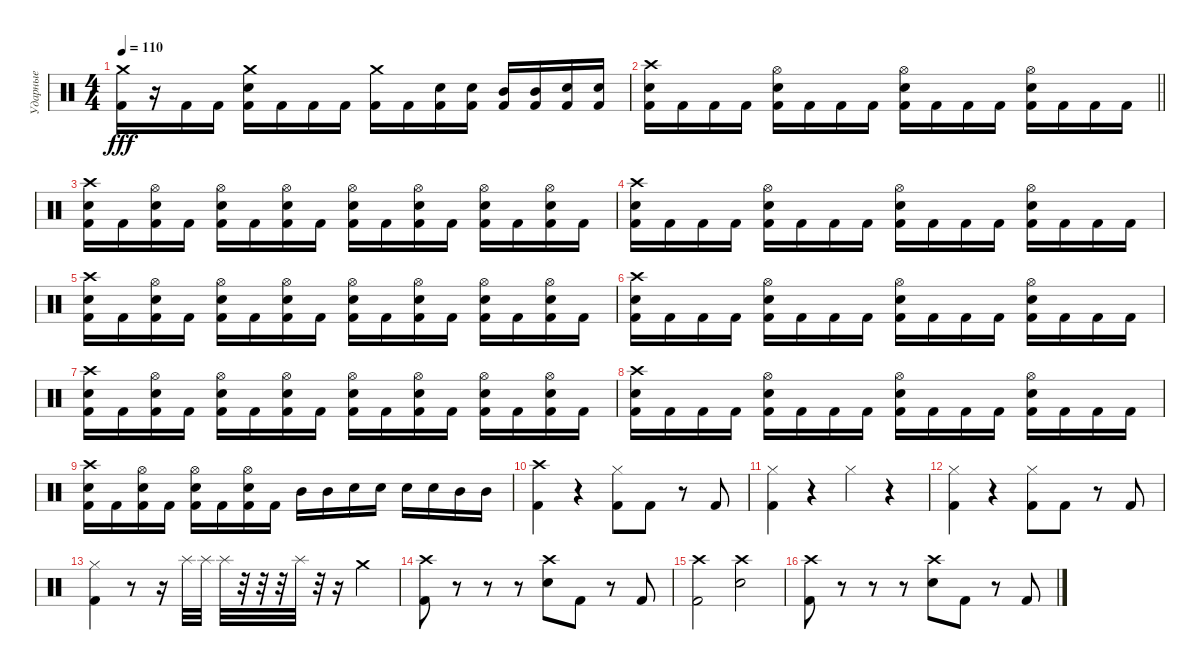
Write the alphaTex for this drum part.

\track ("Ударные" "Ударные") {mute instrument percussion}
\staff {score}
\articulation defaults
\ts (4 4)
\tempo 110
\clef neutral
\ks c
("Crash medium (hit)" "Kick (hit) 2").16{dy fff} r.16 "Kick (hit) 2".16 "Kick (hit) 2".16 ("Crash medium (hit)" "Snare (hit) 2" "Kick (hit) 2").16 "Kick (hit) 2".16 "Kick (hit) 2".16 "Kick (hit) 2".16 ("Crash medium (hit)" "Kick (hit) 2").16 "Kick (hit) 2".16 ("Snare (hit) 2" "Kick (hit) 2").16 ("Snare (hit) 2" "Kick (hit) 2").16 ("Mid Tom (hit)" "Kick (hit) 2").16 ("Mid Tom (hit)" "Kick (hit) 2").16 ("Snare (hit) 2" "Kick (hit) 2").16 ("Snare (hit) 2" "Kick (hit) 2").16 |
\barLineRight lightlight
("Crash high (hit)" "Snare (hit) 2" "Kick (hit) 2").16 "Kick (hit) 2".16 "Kick (hit) 2".16 "Kick (hit) 2".16 ("Hi-Hat (open)" "Snare (hit) 2" "Kick (hit) 2").16 "Kick (hit) 2".16 "Kick (hit) 2".16 "Kick (hit) 2".16 ("Hi-Hat (open)" "Snare (hit) 2" "Kick (hit) 2").16 "Kick (hit) 2".16 "Kick (hit) 2".16 "Kick (hit) 2".16 ("Hi-Hat (open)" "Snare (hit) 2" "Kick (hit) 2").16 "Kick (hit) 2".16 "Kick (hit) 2".16 "Kick (hit) 2".16 |
("Crash high (hit)" "Snare (hit) 2" "Kick (hit) 2").16 "Kick (hit) 2".16 ("Hi-Hat (open)" "Snare (hit) 2" "Kick (hit) 2").16 "Kick (hit) 2".16 ("Hi-Hat (open)" "Snare (hit) 2" "Kick (hit) 2").16 "Kick (hit) 2".16 ("Hi-Hat (open)" "Snare (hit) 2" "Kick (hit) 2").16 "Kick (hit) 2".16 ("Hi-Hat (open)" "Snare (hit) 2" "Kick (hit) 2").16 "Kick (hit) 2".16 ("Hi-Hat (open)" "Snare (hit) 2" "Kick (hit) 2").16 "Kick (hit) 2".16 ("Hi-Hat (open)" "Snare (hit) 2" "Kick (hit) 2").16 "Kick (hit) 2".16 ("Hi-Hat (open)" "Snare (hit) 2" "Kick (hit) 2").16 "Kick (hit) 2".16 |
("Crash high (hit)" "Snare (hit) 2" "Kick (hit) 2").16 "Kick (hit) 2".16 "Kick (hit) 2".16 "Kick (hit) 2".16 ("Hi-Hat (open)" "Snare (hit) 2" "Kick (hit) 2").16 "Kick (hit) 2".16 "Kick (hit) 2".16 "Kick (hit) 2".16 ("Hi-Hat (open)" "Snare (hit) 2" "Kick (hit) 2").16 "Kick (hit) 2".16 "Kick (hit) 2".16 "Kick (hit) 2".16 ("Hi-Hat (open)" "Snare (hit) 2" "Kick (hit) 2").16 "Kick (hit) 2".16 "Kick (hit) 2".16 "Kick (hit) 2".16 |
("Crash high (hit)" "Snare (hit) 2" "Kick (hit) 2").16 "Kick (hit) 2".16 ("Hi-Hat (open)" "Snare (hit) 2" "Kick (hit) 2").16 "Kick (hit) 2".16 ("Hi-Hat (open)" "Snare (hit) 2" "Kick (hit) 2").16 "Kick (hit) 2".16 ("Hi-Hat (open)" "Snare (hit) 2" "Kick (hit) 2").16 "Kick (hit) 2".16 ("Hi-Hat (open)" "Snare (hit) 2" "Kick (hit) 2").16 "Kick (hit) 2".16 ("Hi-Hat (open)" "Snare (hit) 2" "Kick (hit) 2").16 "Kick (hit) 2".16 ("Hi-Hat (open)" "Snare (hit) 2" "Kick (hit) 2").16 "Kick (hit) 2".16 ("Hi-Hat (open)" "Snare (hit) 2" "Kick (hit) 2").16 "Kick (hit) 2".16 |
("Crash high (hit)" "Snare (hit) 2" "Kick (hit) 2").16 "Kick (hit) 2".16 "Kick (hit) 2".16 "Kick (hit) 2".16 ("Hi-Hat (open)" "Snare (hit) 2" "Kick (hit) 2").16 "Kick (hit) 2".16 "Kick (hit) 2".16 "Kick (hit) 2".16 ("Hi-Hat (open)" "Snare (hit) 2" "Kick (hit) 2").16 "Kick (hit) 2".16 "Kick (hit) 2".16 "Kick (hit) 2".16 ("Hi-Hat (open)" "Snare (hit) 2" "Kick (hit) 2").16 "Kick (hit) 2".16 "Kick (hit) 2".16 "Kick (hit) 2".16 |
("Crash high (hit)" "Snare (hit) 2" "Kick (hit) 2").16 "Kick (hit) 2".16 ("Hi-Hat (open)" "Snare (hit) 2" "Kick (hit) 2").16 "Kick (hit) 2".16 ("Hi-Hat (open)" "Snare (hit) 2" "Kick (hit) 2").16 "Kick (hit) 2".16 ("Hi-Hat (open)" "Snare (hit) 2" "Kick (hit) 2").16 "Kick (hit) 2".16 ("Hi-Hat (open)" "Snare (hit) 2" "Kick (hit) 2").16 "Kick (hit) 2".16 ("Hi-Hat (open)" "Snare (hit) 2" "Kick (hit) 2").16 "Kick (hit) 2".16 ("Hi-Hat (open)" "Snare (hit) 2" "Kick (hit) 2").16 "Kick (hit) 2".16 ("Hi-Hat (open)" "Snare (hit) 2" "Kick (hit) 2").16 "Kick (hit) 2".16 |
("Crash high (hit)" "Snare (hit) 2" "Kick (hit) 2").16 "Kick (hit) 2".16 "Kick (hit) 2".16 "Kick (hit) 2".16 ("Hi-Hat (open)" "Snare (hit) 2" "Kick (hit) 2").16 "Kick (hit) 2".16 "Kick (hit) 2".16 "Kick (hit) 2".16 ("Hi-Hat (open)" "Snare (hit) 2" "Kick (hit) 2").16 "Kick (hit) 2".16 "Kick (hit) 2".16 "Kick (hit) 2".16 ("Hi-Hat (open)" "Snare (hit) 2" "Kick (hit) 2").16 "Kick (hit) 2".16 "Kick (hit) 2".16 "Kick (hit) 2".16 |
("Crash high (hit)" "Snare (hit) 2" "Kick (hit) 2").16 "Kick (hit) 2".16 ("Hi-Hat (open)" "Snare (hit) 2" "Kick (hit) 2").16 "Kick (hit) 2".16 ("Hi-Hat (open)" "Snare (hit) 2" "Kick (hit) 2").16 "Kick (hit) 2".16 ("Hi-Hat (open)" "Snare (hit) 2" "Kick (hit) 2").16 "Kick (hit) 2".16 "Mid Tom (hit)".16 "Mid Tom (hit)".16 "Snare (hit) 2".16 "Snare (hit) 2".16 "Snare (hit) 2".16 "Snare (hit) 2".16 "Mid Tom (hit)".16 "Mid Tom (hit)".16 |
("Crash high (hit)" "Kick (hit) 2").4 r.4 ("Hi-Hat (closed)" "Kick (hit) 2").8 "Kick (hit) 2".8 r.8 "Kick (hit) 2".8 |
("Hi-Hat (closed)" "Kick (hit) 2").4 r.4 "Hi-Hat (closed)".4 r.4 |
("Hi-Hat (closed)" "Kick (hit) 2").4 r.4 ("Hi-Hat (closed)" "Kick (hit) 2").8 "Kick (hit) 2".8 r.8 "Kick (hit) 2".8 |
("Hi-Hat (closed)" "Kick (hit) 2").4 r.8 r.16 "Splash (hit)".32 "Splash (hit)".32 "Splash (hit)".32 r.32 r.32 r.32 "Splash (hit)".32 r.32 r.16 "Crash medium (hit)".4 |
("Crash high (hit)" "Kick (hit) 2").8 r.8 r.8 r.8 ("Crash high (hit)" "Snare (hit) 2").8 "Kick (hit) 2".8 r.8 "Kick (hit) 2".8 |
("Crash high (hit)" "Kick (hit) 2").2 ("Crash high (hit)" "Snare (hit) 2").2 |
("Crash high (hit)" "Kick (hit) 2").8 r.8 r.8 r.8 ("Crash high (hit)" "Snare (hit) 2").8 "Kick (hit) 2".8 r.8 "Kick (hit) 2".8
